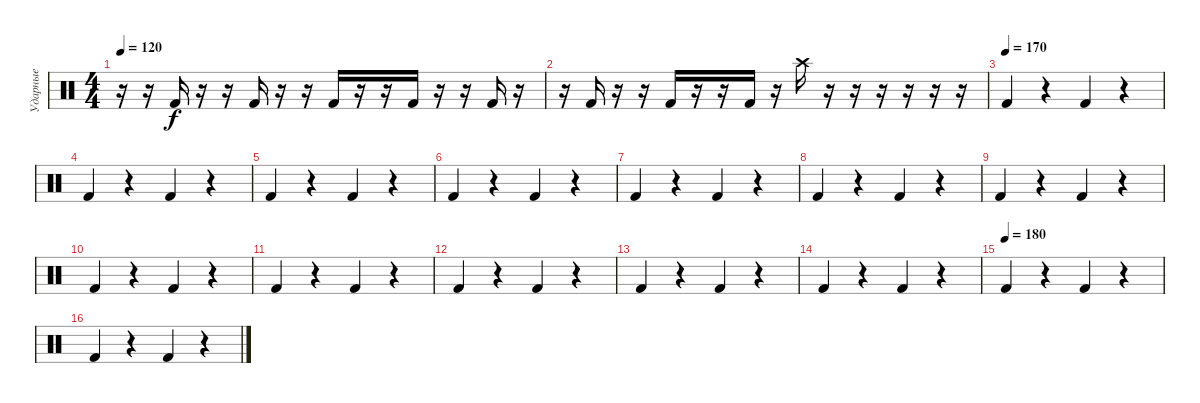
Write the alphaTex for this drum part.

\track ("Ударные" "Ударные") {instrument percussion}
\staff {score}
\articulation defaults
\ts (4 4)
\tempo 120
\clef neutral
\ks c
r.16{dy f} r.16 "Kick (hit) 2".16 r.16 r.16 "Kick (hit) 2".16 r.16 r.16 "Kick (hit) 2".16 r.16 r.16 "Kick (hit) 2".16 r.16 r.16 "Kick (hit) 2".16 r.16 |
r.16 "Kick (hit) 2".16 r.16 r.16 "Kick (hit) 2".16 r.16 r.16 "Kick (hit) 2".16 r.16 "Crash high (hit)".16 r.16 r.16 r.16 r.16 r.16 r.16 |
\tempo (170)
"Kick (hit) 2".4 r.4 "Kick (hit) 2".4 r.4 |
"Kick (hit) 2".4 r.4 "Kick (hit) 2".4 r.4 |
"Kick (hit) 2".4 r.4 "Kick (hit) 2".4 r.4 |
"Kick (hit) 2".4 r.4 "Kick (hit) 2".4 r.4 |
"Kick (hit) 2".4 r.4 "Kick (hit) 2".4 r.4 |
"Kick (hit) 2".4 r.4 "Kick (hit) 2".4 r.4 |
"Kick (hit) 2".4 r.4 "Kick (hit) 2".4 r.4 |
"Kick (hit) 2".4 r.4 "Kick (hit) 2".4 r.4 |
"Kick (hit) 2".4 r.4 "Kick (hit) 2".4 r.4 |
"Kick (hit) 2".4 r.4 "Kick (hit) 2".4 r.4 |
"Kick (hit) 2".4 r.4 "Kick (hit) 2".4 r.4 |
"Kick (hit) 2".4 r.4 "Kick (hit) 2".4 r.4 |
\tempo (180)
"Kick (hit) 2".4 r.4 "Kick (hit) 2".4 r.4 |
"Kick (hit) 2".4 r.4 "Kick (hit) 2".4 r.4
